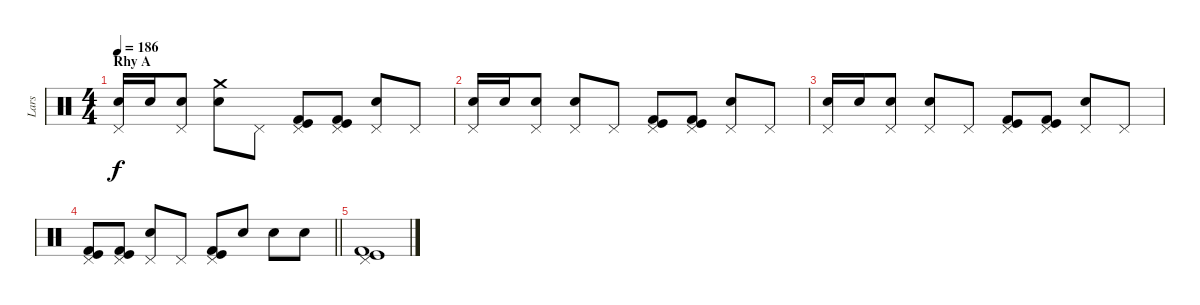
\track ("Lars" "Lars") {instrument percussion}
\staff {score}
\articulation defaults
\ts (4 4)
\section ("" "Rhy A")
\tempo 186
\clef neutral
\ks c
("Pedal Hi-Hat (hit)" "Electric Snare (hit)").16{dy f} "Electric Snare (hit)".16 ("Pedal Hi-Hat (hit)" "Electric Snare (hit)").8 ("Crash medium (hit)" "Electric Snare (hit)").8 "Pedal Hi-Hat (hit)".8 ("Pedal Hi-Hat (hit)" "Kick (hit)" "Kick (hit) 2").8 ("Pedal Hi-Hat (hit)" "Kick (hit)" "Kick (hit) 2").8 ("Pedal Hi-Hat (hit)" "Electric Snare (hit)").8 "Pedal Hi-Hat (hit)".8 |
("Pedal Hi-Hat (hit)" "Electric Snare (hit)").16 "Electric Snare (hit)".16 ("Pedal Hi-Hat (hit)" "Electric Snare (hit)").8 ("Pedal Hi-Hat (hit)" "Electric Snare (hit)").8 "Pedal Hi-Hat (hit)".8 ("Pedal Hi-Hat (hit)" "Kick (hit)" "Kick (hit) 2").8 ("Pedal Hi-Hat (hit)" "Kick (hit)" "Kick (hit) 2").8 ("Pedal Hi-Hat (hit)" "Electric Snare (hit)").8 "Pedal Hi-Hat (hit)".8 |
("Pedal Hi-Hat (hit)" "Electric Snare (hit)").16 "Electric Snare (hit)".16 ("Pedal Hi-Hat (hit)" "Electric Snare (hit)").8 ("Pedal Hi-Hat (hit)" "Electric Snare (hit)").8 "Pedal Hi-Hat (hit)".8 ("Pedal Hi-Hat (hit)" "Kick (hit)" "Kick (hit) 2").8 ("Pedal Hi-Hat (hit)" "Kick (hit)" "Kick (hit) 2").8 ("Pedal Hi-Hat (hit)" "Electric Snare (hit)").8 "Pedal Hi-Hat (hit)".8 |
\barLineRight lightlight
("Pedal Hi-Hat (hit)" "Kick (hit)" "Kick (hit) 2").8 ("Pedal Hi-Hat (hit)" "Kick (hit)" "Kick (hit) 2").8 ("Pedal Hi-Hat (hit)" "Electric Snare (hit)").8 "Pedal Hi-Hat (hit)".8 ("Pedal Hi-Hat (hit)" "Kick (hit)" "Kick (hit) 2").8 "Electric Snare (hit)".8 "Electric Snare (hit)".8 "Electric Snare (hit)".8 |
("Pedal Hi-Hat (hit)" "Kick (hit)" "Kick (hit) 2").1
